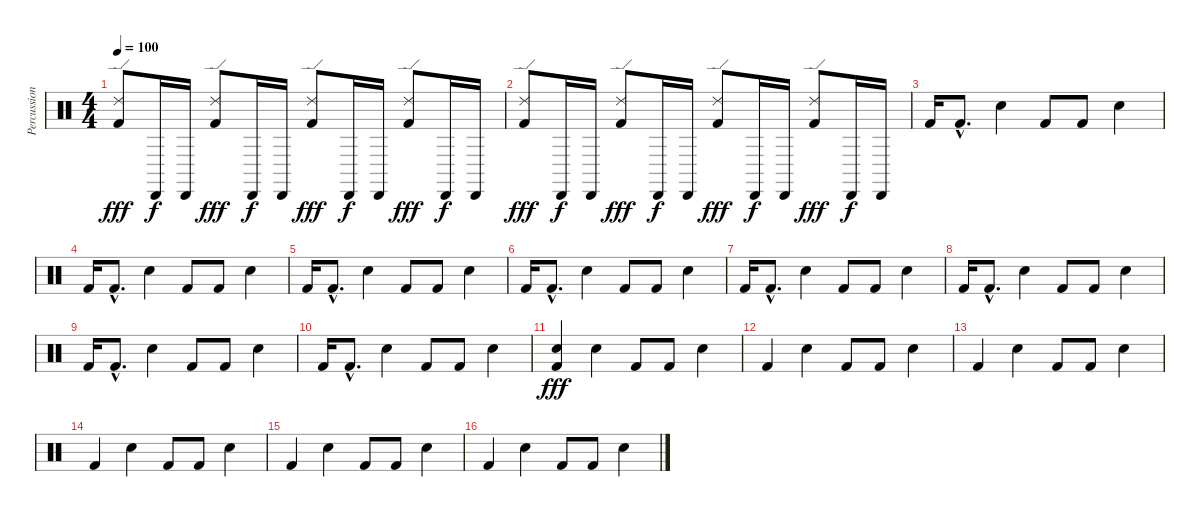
\track ("Percussion" "Percussion") {instrument percussion}
\staff {score}
\articulation defaults
\ts (4 4)
\tempo 100
\clef neutral
\ks c
("Ride (edge) 2" "Kick (hit) 2").8{dy fff} "Cabasa (hit)".16{dy f} "Cabasa (hit)".16 ("Ride (edge) 2" "Kick (hit) 2").8{dy fff} "Cabasa (hit)".16{dy f} "Cabasa (hit)".16 ("Ride (edge) 2" "Kick (hit) 2").8{dy fff} "Cabasa (hit)".16{dy f} "Cabasa (hit)".16 ("Ride (edge) 2" "Kick (hit) 2").8{dy fff} "Cabasa (hit)".16{dy f} "Cabasa (hit)".16 |
("Ride (edge) 2" "Kick (hit) 2").8{dy fff} "Cabasa (hit)".16{dy f} "Cabasa (hit)".16 ("Ride (edge) 2" "Kick (hit) 2").8{dy fff} "Cabasa (hit)".16{dy f} "Cabasa (hit)".16 ("Ride (edge) 2" "Kick (hit) 2").8{dy fff} "Cabasa (hit)".16{dy f} "Cabasa (hit)".16 ("Ride (edge) 2" "Kick (hit) 2").8{dy fff} "Cabasa (hit)".16{dy f} "Cabasa (hit)".16 |
"Kick (hit) 2".16 "Kick (hit) 2"{hac}.8{d} "Snare (hit) 2".4 "Kick (hit) 2".8 "Kick (hit) 2".8 "Snare (hit) 2".4 |
"Kick (hit) 2".16 "Kick (hit) 2"{hac}.8{d} "Snare (hit) 2".4 "Kick (hit) 2".8 "Kick (hit) 2".8 "Snare (hit) 2".4 |
"Kick (hit) 2".16 "Kick (hit) 2"{hac}.8{d} "Snare (hit) 2".4 "Kick (hit) 2".8 "Kick (hit) 2".8 "Snare (hit) 2".4 |
"Kick (hit) 2".16 "Kick (hit) 2"{hac}.8{d} "Snare (hit) 2".4 "Kick (hit) 2".8 "Kick (hit) 2".8 "Snare (hit) 2".4 |
"Kick (hit) 2".16 "Kick (hit) 2"{hac}.8{d} "Snare (hit) 2".4 "Kick (hit) 2".8 "Kick (hit) 2".8 "Snare (hit) 2".4 |
"Kick (hit) 2".16 "Kick (hit) 2"{hac}.8{d} "Snare (hit) 2".4 "Kick (hit) 2".8 "Kick (hit) 2".8 "Snare (hit) 2".4 |
"Kick (hit) 2".16 "Kick (hit) 2"{hac}.8{d} "Snare (hit) 2".4 "Kick (hit) 2".8 "Kick (hit) 2".8 "Snare (hit) 2".4 |
"Kick (hit) 2".16 "Kick (hit) 2"{hac}.8{d} "Snare (hit) 2".4 "Kick (hit) 2".8 "Kick (hit) 2".8 "Snare (hit) 2".4 |
("Electric Snare (hit)" "Kick (hit) 2").4{dy fff} "Electric Snare (hit)".4 "Kick (hit) 2".8 "Kick (hit) 2".8 "Electric Snare (hit)".4 |
"Kick (hit) 2".4 "Electric Snare (hit)".4 "Kick (hit) 2".8 "Kick (hit) 2".8 "Electric Snare (hit)".4 |
"Kick (hit) 2".4 "Electric Snare (hit)".4 "Kick (hit) 2".8 "Kick (hit) 2".8 "Electric Snare (hit)".4 |
"Kick (hit) 2".4 "Electric Snare (hit)".4 "Kick (hit) 2".8 "Kick (hit) 2".8 "Electric Snare (hit)".4 |
"Kick (hit) 2".4 "Electric Snare (hit)".4 "Kick (hit) 2".8 "Kick (hit) 2".8 "Electric Snare (hit)".4 |
"Kick (hit) 2".4 "Electric Snare (hit)".4 "Kick (hit) 2".8 "Kick (hit) 2".8 "Electric Snare (hit)".4
